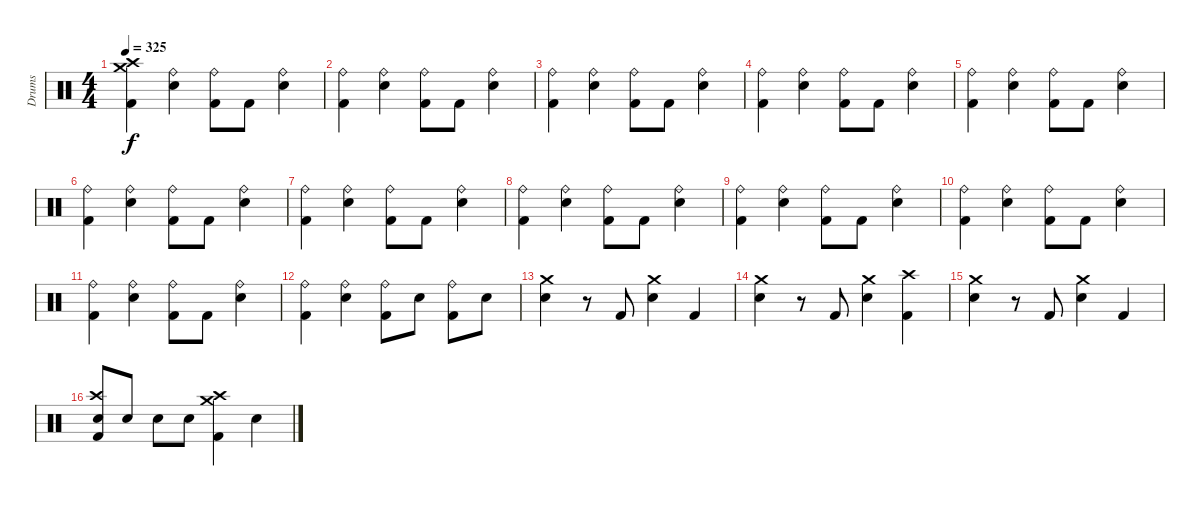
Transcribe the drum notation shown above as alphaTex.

\track ("Drums" "Drums") {instrument percussion}
\staff {score}
\articulation defaults
\ts (4 4)
\tempo 325
\clef neutral
\ks c
("Kick (hit) 2" "Crash high (hit)" "Crash medium (hit)").4{dy f} ("Electric Snare (hit)" "Ride (bell)").4 ("Kick (hit) 2" "Ride (bell)").8 "Kick (hit) 2".8 ("Electric Snare (hit)" "Ride (bell)").4 |
("Kick (hit) 2" "Ride (bell)").4 ("Electric Snare (hit)" "Ride (bell)").4 ("Kick (hit) 2" "Ride (bell)").8 "Kick (hit) 2".8 ("Electric Snare (hit)" "Ride (bell)").4 |
("Kick (hit) 2" "Ride (bell)").4 ("Electric Snare (hit)" "Ride (bell)").4 ("Kick (hit) 2" "Ride (bell)").8 "Kick (hit) 2".8 ("Electric Snare (hit)" "Ride (bell)").4 |
("Kick (hit) 2" "Ride (bell)").4 ("Electric Snare (hit)" "Ride (bell)").4 ("Kick (hit) 2" "Ride (bell)").8 "Kick (hit) 2".8 ("Electric Snare (hit)" "Ride (bell)").4 |
("Ride (bell)" "Kick (hit) 2").4 ("Electric Snare (hit)" "Ride (bell)").4 ("Kick (hit) 2" "Ride (bell)").8 "Kick (hit) 2".8 ("Electric Snare (hit)" "Ride (bell)").4 |
("Kick (hit) 2" "Ride (bell)").4 ("Electric Snare (hit)" "Ride (bell)").4 ("Kick (hit) 2" "Ride (bell)").8 "Kick (hit) 2".8 ("Electric Snare (hit)" "Ride (bell)").4 |
("Kick (hit) 2" "Ride (bell)").4 ("Electric Snare (hit)" "Ride (bell)").4 ("Kick (hit) 2" "Ride (bell)").8 "Kick (hit) 2".8 ("Electric Snare (hit)" "Ride (bell)").4 |
("Kick (hit) 2" "Ride (bell)").4 ("Electric Snare (hit)" "Ride (bell)").4 ("Kick (hit) 2" "Ride (bell)").8 "Kick (hit) 2".8 ("Electric Snare (hit)" "Ride (bell)").4 |
("Ride (bell)" "Kick (hit) 2").4 ("Electric Snare (hit)" "Ride (bell)").4 ("Kick (hit) 2" "Ride (bell)").8 "Kick (hit) 2".8 ("Electric Snare (hit)" "Ride (bell)").4 |
("Kick (hit) 2" "Ride (bell)").4 ("Electric Snare (hit)" "Ride (bell)").4 ("Kick (hit) 2" "Ride (bell)").8 "Kick (hit) 2".8 ("Electric Snare (hit)" "Ride (bell)").4 |
("Kick (hit) 2" "Ride (bell)").4 ("Electric Snare (hit)" "Ride (bell)").4 ("Kick (hit) 2" "Ride (bell)").8 "Kick (hit) 2".8 ("Electric Snare (hit)" "Ride (bell)").4 |
("Ride (bell)" "Kick (hit) 2").4 ("Electric Snare (hit)" "Ride (bell)").4 ("Kick (hit) 2" "Ride (bell)").8 "Electric Snare (hit)".8 ("Kick (hit) 2" "Ride (bell)").8 "Electric Snare (hit)".8 |
("Electric Snare (hit)" "Crash medium (hit)").4 r.8 "Kick (hit) 2".8 ("Electric Snare (hit)" "Crash medium (hit)").4 "Kick (hit) 2".4 |
("Electric Snare (hit)" "Crash medium (hit)").4 r.8 "Kick (hit) 2".8 ("Snare (hit) 2" "Crash medium (hit)").4 ("Kick (hit) 2" "Crash high (hit)").4 |
("Electric Snare (hit)" "Crash medium (hit)").4 r.8 "Kick (hit) 2".8 ("Electric Snare (hit)" "Crash medium (hit)").4 "Kick (hit) 2".4 |
("Kick (hit) 2" "Electric Snare (hit)" "Crash high (hit)").8 "Electric Snare (hit)".8 "Electric Snare (hit)".8 "Electric Snare (hit)".8 ("Kick (hit) 2" "Crash high (hit)" "Crash medium (hit)").4 "Electric Snare (hit)".4
